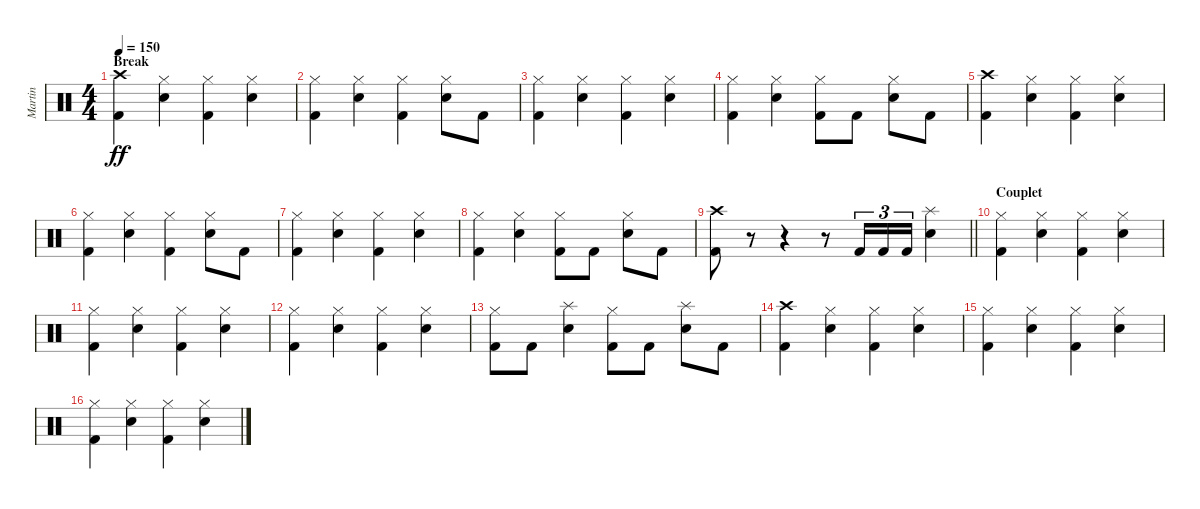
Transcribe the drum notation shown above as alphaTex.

\track ("Martin" "Martin") {instrument percussion}
\staff {score}
\articulation defaults
\ts (4 4)
\section ("" "Break")
\tempo 150
\clef neutral
\ks c
("Crash high (hit)" "Kick (hit) 2").4{dy ff} ("Hi-Hat (closed)" "Electric Snare (hit)").4 ("Hi-Hat (closed)" "Kick (hit) 2").4 ("Hi-Hat (closed)" "Electric Snare (hit)").4 |
("Hi-Hat (closed)" "Kick (hit) 2").4 ("Hi-Hat (closed)" "Electric Snare (hit)").4 ("Hi-Hat (closed)" "Kick (hit) 2").4 ("Hi-Hat (closed)" "Electric Snare (hit)").8 "Kick (hit) 2".8 |
("Hi-Hat (closed)" "Kick (hit) 2").4 ("Hi-Hat (closed)" "Electric Snare (hit)").4 ("Hi-Hat (closed)" "Kick (hit) 2").4 ("Hi-Hat (closed)" "Electric Snare (hit)").4 |
("Hi-Hat (closed)" "Kick (hit) 2").4 ("Hi-Hat (closed)" "Electric Snare (hit)").4 ("Hi-Hat (closed)" "Kick (hit) 2").8 "Kick (hit) 2".8 ("Hi-Hat (closed)" "Electric Snare (hit)").8 "Kick (hit) 2".8 |
("Crash high (hit)" "Kick (hit) 2").4 ("Hi-Hat (closed)" "Electric Snare (hit)").4 ("Hi-Hat (closed)" "Kick (hit) 2").4 ("Hi-Hat (closed)" "Electric Snare (hit)").4 |
("Hi-Hat (closed)" "Kick (hit) 2").4 ("Hi-Hat (closed)" "Electric Snare (hit)").4 ("Hi-Hat (closed)" "Kick (hit) 2").4 ("Hi-Hat (closed)" "Electric Snare (hit)").8 "Kick (hit) 2".8 |
("Hi-Hat (closed)" "Kick (hit) 2").4 ("Hi-Hat (closed)" "Electric Snare (hit)").4 ("Hi-Hat (closed)" "Kick (hit) 2").4 ("Hi-Hat (closed)" "Electric Snare (hit)").4 |
("Hi-Hat (closed)" "Kick (hit) 2").4 ("Hi-Hat (closed)" "Electric Snare (hit)").4 ("Hi-Hat (closed)" "Kick (hit) 2").8 "Kick (hit) 2".8 ("Hi-Hat (closed)" "Electric Snare (hit)").8 "Kick (hit) 2".8 |
\barLineRight lightlight
("Crash high (hit)" "Kick (hit) 2").8 r.8 r.4 r.8 "Kick (hit) 2".16{tu (3 2)} "Kick (hit) 2".16{tu (3 2)} "Kick (hit) 2".16{tu (3 2)} ("Splash (hit)" "Electric Snare (hit)").4 |
\section ("" "Couplet")
("Hi-Hat (closed)" "Kick (hit) 2").4 ("Hi-Hat (closed)" "Electric Snare (hit)").4 ("Hi-Hat (closed)" "Kick (hit) 2").4 ("Hi-Hat (closed)" "Electric Snare (hit)").4 |
("Hi-Hat (closed)" "Kick (hit) 2").4 ("Hi-Hat (closed)" "Electric Snare (hit)").4 ("Hi-Hat (closed)" "Kick (hit) 2").4 ("Hi-Hat (closed)" "Electric Snare (hit)").4 |
("Hi-Hat (closed)" "Kick (hit) 2").4 ("Hi-Hat (closed)" "Electric Snare (hit)").4 ("Hi-Hat (closed)" "Kick (hit) 2").4 ("Hi-Hat (closed)" "Electric Snare (hit)").4 |
("Hi-Hat (closed)" "Kick (hit) 2").8 "Kick (hit) 2".8 ("Splash (hit)" "Electric Snare (hit)").4 ("Hi-Hat (closed)" "Kick (hit) 2").8 "Kick (hit) 2".8 ("Splash (hit)" "Electric Snare (hit)").8 "Kick (hit) 2".8 |
("Crash high (hit)" "Kick (hit) 2").4 ("Hi-Hat (closed)" "Electric Snare (hit)").4 ("Hi-Hat (closed)" "Kick (hit) 2").4 ("Hi-Hat (closed)" "Electric Snare (hit)").4 |
("Hi-Hat (closed)" "Kick (hit) 2").4 ("Hi-Hat (closed)" "Electric Snare (hit)").4 ("Hi-Hat (closed)" "Kick (hit) 2").4 ("Hi-Hat (closed)" "Electric Snare (hit)").4 |
("Hi-Hat (closed)" "Kick (hit) 2").4 ("Hi-Hat (closed)" "Electric Snare (hit)").4 ("Hi-Hat (closed)" "Kick (hit) 2").4 ("Hi-Hat (closed)" "Electric Snare (hit)").4
